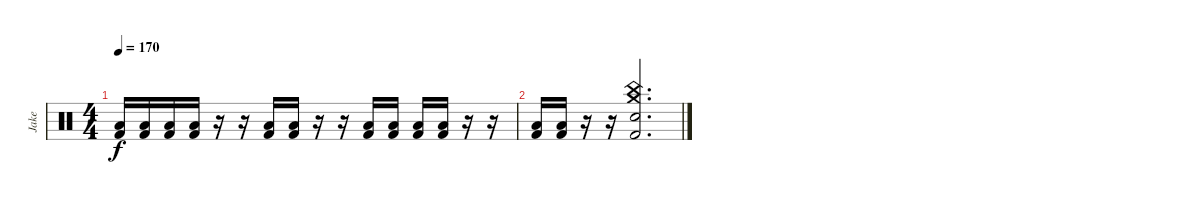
\track ("Jake" "Jake") {instrument percussion}
\staff {score}
\articulation defaults
\ts (4 4)
\tempo 170
\clef neutral
\ks c
("Low Floor Tom (hit)" "Kick (hit) 2").16{dy f} ("Low Floor Tom (hit)" "Kick (hit) 2").16 ("Low Floor Tom (hit)" "Kick (hit) 2").16 ("Low Floor Tom (hit)" "Kick (hit) 2").16 r.16 r.16 ("Low Floor Tom (hit)" "Kick (hit) 2").16 ("Low Floor Tom (hit)" "Kick (hit) 2").16 r.16 r.16 ("Low Floor Tom (hit)" "Kick (hit) 2").16 ("Low Floor Tom (hit)" "Kick (hit) 2").16 ("Low Floor Tom (hit)" "Kick (hit) 2").16 ("Low Floor Tom (hit)" "Kick (hit) 2").16 r.16 r.16 |
("Low Floor Tom (hit)" "Kick (hit) 2").16 ("Low Floor Tom (hit)" "Kick (hit) 2").16 r.16 r.16 ("China (hit)" "Crash medium (hit)" "Electric Snare (hit)" "Kick (hit) 2").2{d}
